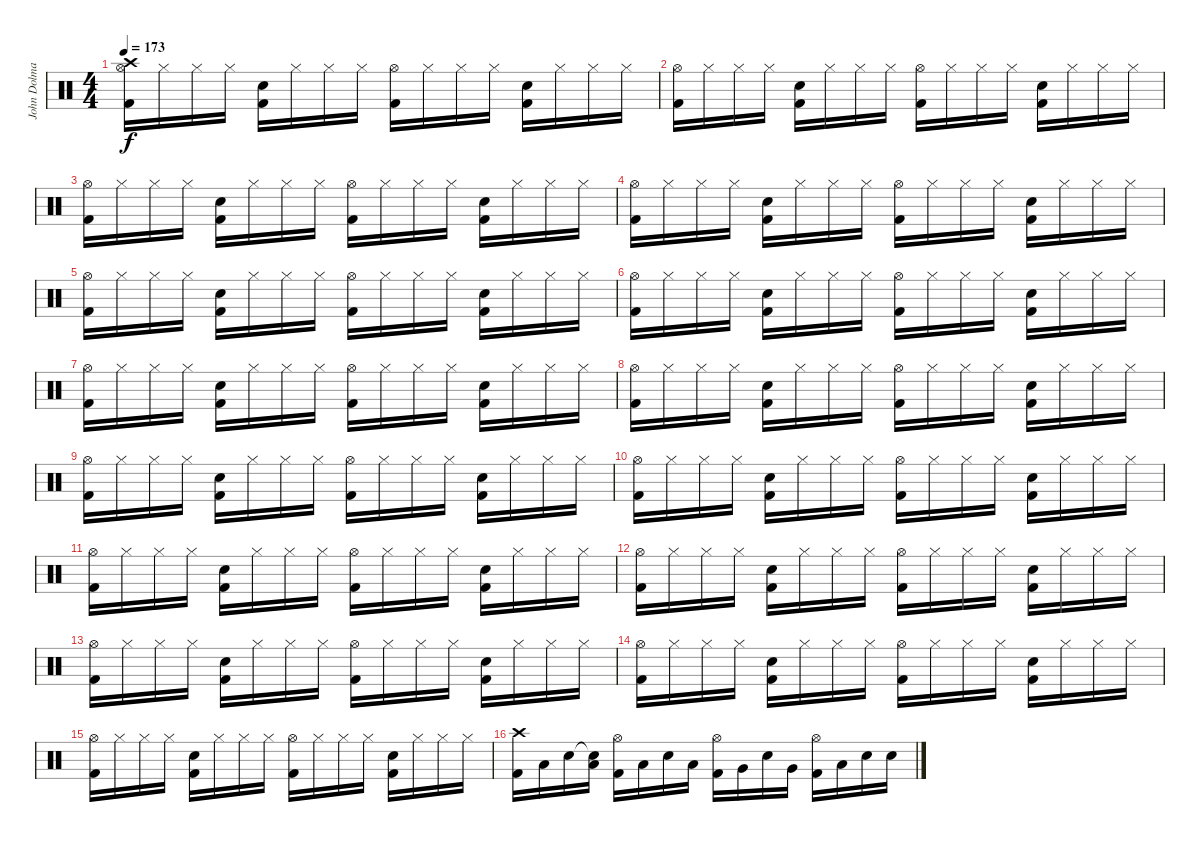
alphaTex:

\track ("John Dolmayan" "John Dolma") {instrument percussion}
\staff {score}
\articulation defaults
\ts (4 4)
\tempo 173
\clef neutral
\ks c
("Kick (hit) 2" "Hi-Hat (open)" "Crash high (hit)").16{dy f} "Hi-Hat (closed)".16 "Hi-Hat (closed)".16 "Hi-Hat (closed)".16 ("Kick (hit) 2" "Electric Snare (hit)").16 "Hi-Hat (closed)".16 "Hi-Hat (closed)".16 "Hi-Hat (closed)".16 ("Kick (hit) 2" "Hi-Hat (open)").16 "Hi-Hat (closed)".16 "Hi-Hat (closed)".16 "Hi-Hat (closed)".16 ("Kick (hit) 2" "Electric Snare (hit)").16 "Hi-Hat (closed)".16 "Hi-Hat (closed)".16 "Hi-Hat (closed)".16 |
("Kick (hit) 2" "Hi-Hat (open)").16 "Hi-Hat (closed)".16 "Hi-Hat (closed)".16 "Hi-Hat (closed)".16 ("Kick (hit) 2" "Electric Snare (hit)").16 "Hi-Hat (closed)".16 "Hi-Hat (closed)".16 "Hi-Hat (closed)".16 ("Kick (hit) 2" "Hi-Hat (open)").16 "Hi-Hat (closed)".16 "Hi-Hat (closed)".16 "Hi-Hat (closed)".16 ("Kick (hit) 2" "Electric Snare (hit)").16 "Hi-Hat (closed)".16 "Hi-Hat (closed)".16 "Hi-Hat (closed)".16 |
("Kick (hit) 2" "Hi-Hat (open)").16 "Hi-Hat (closed)".16 "Hi-Hat (closed)".16 "Hi-Hat (closed)".16 ("Kick (hit) 2" "Electric Snare (hit)").16 "Hi-Hat (closed)".16 "Hi-Hat (closed)".16 "Hi-Hat (closed)".16 ("Kick (hit) 2" "Hi-Hat (open)").16 "Hi-Hat (closed)".16 "Hi-Hat (closed)".16 "Hi-Hat (closed)".16 ("Kick (hit) 2" "Electric Snare (hit)").16 "Hi-Hat (closed)".16 "Hi-Hat (closed)".16 "Hi-Hat (closed)".16 |
("Kick (hit) 2" "Hi-Hat (open)").16 "Hi-Hat (closed)".16 "Hi-Hat (closed)".16 "Hi-Hat (closed)".16 ("Kick (hit) 2" "Electric Snare (hit)").16 "Hi-Hat (closed)".16 "Hi-Hat (closed)".16 "Hi-Hat (closed)".16 ("Kick (hit) 2" "Hi-Hat (open)").16 "Hi-Hat (closed)".16 "Hi-Hat (closed)".16 "Hi-Hat (closed)".16 ("Kick (hit) 2" "Electric Snare (hit)").16 "Hi-Hat (closed)".16 "Hi-Hat (closed)".16 "Hi-Hat (closed)".16 |
("Kick (hit) 2" "Hi-Hat (open)").16 "Hi-Hat (closed)".16 "Hi-Hat (closed)".16 "Hi-Hat (closed)".16 ("Kick (hit) 2" "Electric Snare (hit)").16 "Hi-Hat (closed)".16 "Hi-Hat (closed)".16 "Hi-Hat (closed)".16 ("Kick (hit) 2" "Hi-Hat (open)").16 "Hi-Hat (closed)".16 "Hi-Hat (closed)".16 "Hi-Hat (closed)".16 ("Kick (hit) 2" "Electric Snare (hit)").16 "Hi-Hat (closed)".16 "Hi-Hat (closed)".16 "Hi-Hat (closed)".16 |
("Kick (hit) 2" "Hi-Hat (open)").16 "Hi-Hat (closed)".16 "Hi-Hat (closed)".16 "Hi-Hat (closed)".16 ("Kick (hit) 2" "Electric Snare (hit)").16 "Hi-Hat (closed)".16 "Hi-Hat (closed)".16 "Hi-Hat (closed)".16 ("Kick (hit) 2" "Hi-Hat (open)").16 "Hi-Hat (closed)".16 "Hi-Hat (closed)".16 "Hi-Hat (closed)".16 ("Kick (hit) 2" "Electric Snare (hit)").16 "Hi-Hat (closed)".16 "Hi-Hat (closed)".16 "Hi-Hat (closed)".16 |
("Kick (hit) 2" "Hi-Hat (open)").16 "Hi-Hat (closed)".16 "Hi-Hat (closed)".16 "Hi-Hat (closed)".16 ("Kick (hit) 2" "Electric Snare (hit)").16 "Hi-Hat (closed)".16 "Hi-Hat (closed)".16 "Hi-Hat (closed)".16 ("Kick (hit) 2" "Hi-Hat (open)").16 "Hi-Hat (closed)".16 "Hi-Hat (closed)".16 "Hi-Hat (closed)".16 ("Kick (hit) 2" "Electric Snare (hit)").16 "Hi-Hat (closed)".16 "Hi-Hat (closed)".16 "Hi-Hat (closed)".16 |
("Kick (hit) 2" "Hi-Hat (open)").16 "Hi-Hat (closed)".16 "Hi-Hat (closed)".16 "Hi-Hat (closed)".16 ("Kick (hit) 2" "Electric Snare (hit)").16 "Hi-Hat (closed)".16 "Hi-Hat (closed)".16 "Hi-Hat (closed)".16 ("Kick (hit) 2" "Hi-Hat (open)").16 "Hi-Hat (closed)".16 "Hi-Hat (closed)".16 "Hi-Hat (closed)".16 ("Kick (hit) 2" "Electric Snare (hit)").16 "Hi-Hat (closed)".16 "Hi-Hat (closed)".16 "Hi-Hat (closed)".16 |
("Kick (hit) 2" "Hi-Hat (open)").16 "Hi-Hat (closed)".16 "Hi-Hat (closed)".16 "Hi-Hat (closed)".16 ("Kick (hit) 2" "Electric Snare (hit)").16 "Hi-Hat (closed)".16 "Hi-Hat (closed)".16 "Hi-Hat (closed)".16 ("Kick (hit) 2" "Hi-Hat (open)").16 "Hi-Hat (closed)".16 "Hi-Hat (closed)".16 "Hi-Hat (closed)".16 ("Kick (hit) 2" "Electric Snare (hit)").16 "Hi-Hat (closed)".16 "Hi-Hat (closed)".16 "Hi-Hat (closed)".16 |
("Kick (hit) 2" "Hi-Hat (open)").16 "Hi-Hat (closed)".16 "Hi-Hat (closed)".16 "Hi-Hat (closed)".16 ("Kick (hit) 2" "Electric Snare (hit)").16 "Hi-Hat (closed)".16 "Hi-Hat (closed)".16 "Hi-Hat (closed)".16 ("Kick (hit) 2" "Hi-Hat (open)").16 "Hi-Hat (closed)".16 "Hi-Hat (closed)".16 "Hi-Hat (closed)".16 ("Kick (hit) 2" "Electric Snare (hit)").16 "Hi-Hat (closed)".16 "Hi-Hat (closed)".16 "Hi-Hat (closed)".16 |
("Kick (hit) 2" "Hi-Hat (open)").16 "Hi-Hat (closed)".16 "Hi-Hat (closed)".16 "Hi-Hat (closed)".16 ("Kick (hit) 2" "Electric Snare (hit)").16 "Hi-Hat (closed)".16 "Hi-Hat (closed)".16 "Hi-Hat (closed)".16 ("Kick (hit) 2" "Hi-Hat (open)").16 "Hi-Hat (closed)".16 "Hi-Hat (closed)".16 "Hi-Hat (closed)".16 ("Kick (hit) 2" "Electric Snare (hit)").16 "Hi-Hat (closed)".16 "Hi-Hat (closed)".16 "Hi-Hat (closed)".16 |
("Kick (hit) 2" "Hi-Hat (open)").16 "Hi-Hat (closed)".16 "Hi-Hat (closed)".16 "Hi-Hat (closed)".16 ("Kick (hit) 2" "Electric Snare (hit)").16 "Hi-Hat (closed)".16 "Hi-Hat (closed)".16 "Hi-Hat (closed)".16 ("Kick (hit) 2" "Hi-Hat (open)").16 "Hi-Hat (closed)".16 "Hi-Hat (closed)".16 "Hi-Hat (closed)".16 ("Kick (hit) 2" "Electric Snare (hit)").16 "Hi-Hat (closed)".16 "Hi-Hat (closed)".16 "Hi-Hat (closed)".16 |
("Kick (hit) 2" "Hi-Hat (open)").16 "Hi-Hat (closed)".16 "Hi-Hat (closed)".16 "Hi-Hat (closed)".16 ("Kick (hit) 2" "Electric Snare (hit)").16 "Hi-Hat (closed)".16 "Hi-Hat (closed)".16 "Hi-Hat (closed)".16 ("Kick (hit) 2" "Hi-Hat (open)").16 "Hi-Hat (closed)".16 "Hi-Hat (closed)".16 "Hi-Hat (closed)".16 ("Kick (hit) 2" "Electric Snare (hit)").16 "Hi-Hat (closed)".16 "Hi-Hat (closed)".16 "Hi-Hat (closed)".16 |
("Kick (hit) 2" "Hi-Hat (open)").16 "Hi-Hat (closed)".16 "Hi-Hat (closed)".16 "Hi-Hat (closed)".16 ("Kick (hit) 2" "Electric Snare (hit)").16 "Hi-Hat (closed)".16 "Hi-Hat (closed)".16 "Hi-Hat (closed)".16 ("Kick (hit) 2" "Hi-Hat (open)").16 "Hi-Hat (closed)".16 "Hi-Hat (closed)".16 "Hi-Hat (closed)".16 ("Kick (hit) 2" "Electric Snare (hit)").16 "Hi-Hat (closed)".16 "Hi-Hat (closed)".16 "Hi-Hat (closed)".16 |
("Kick (hit) 2" "Hi-Hat (open)").16 "Hi-Hat (closed)".16 "Hi-Hat (closed)".16 "Hi-Hat (closed)".16 ("Kick (hit) 2" "Electric Snare (hit)").16 "Hi-Hat (closed)".16 "Hi-Hat (closed)".16 "Hi-Hat (closed)".16 ("Kick (hit) 2" "Hi-Hat (open)").16 "Hi-Hat (closed)".16 "Hi-Hat (closed)".16 "Hi-Hat (closed)".16 ("Kick (hit) 2" "Electric Snare (hit)").16 "Hi-Hat (closed)".16 "Hi-Hat (closed)".16 "Hi-Hat (closed)".16 |
("Crash high (hit)" "Kick (hit) 2").16 "Low Tom (hit)".16 "Electric Snare (hit)".16 ("Snare (hit)"{t} "Low Tom (hit)").16 ("Hi-Hat (open)" "Kick (hit) 2").16 "Low Tom (hit)".16 "Electric Snare (hit)".16 "Low Tom (hit)".16 ("Hi-Hat (open)" "Kick (hit) 2").16 "Very Low Tom (hit)".16 "Electric Snare (hit)".16 "Very Low Tom (hit)".16 ("Hi-Hat (open)" "Kick (hit) 2").16 "Low Floor Tom (hit)".16 "Electric Snare (hit)".16 "Electric Snare (hit)".16
